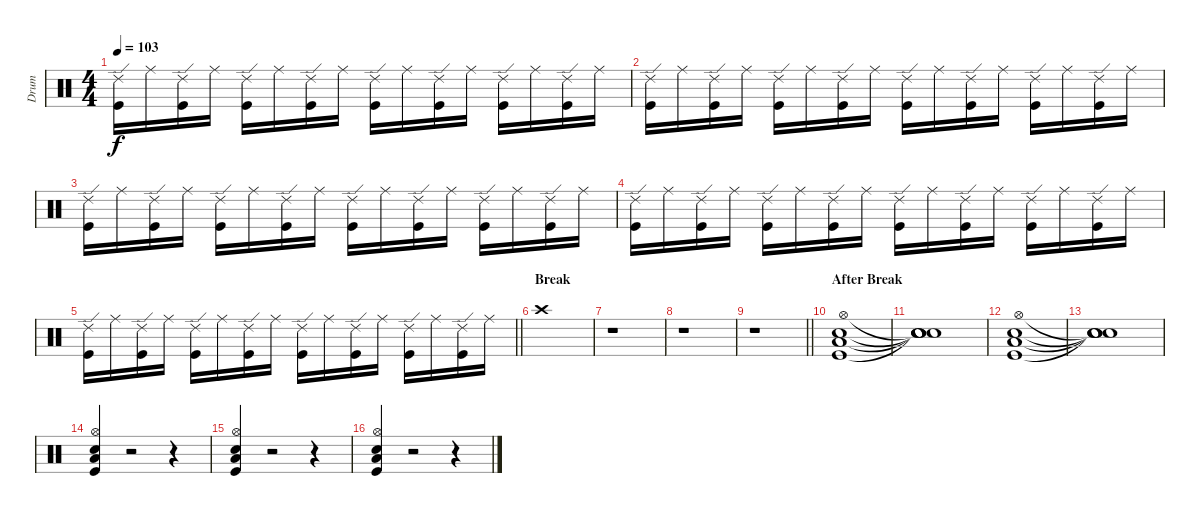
\track ("Drum" "Drum") {instrument percussion}
\staff {score}
\articulation defaults
\ts (4 4)
\tempo 103
\clef neutral
\ks c
("Ride (edge) 2" "Kick (hit)").16{dy f} "Ride (middle)".16 ("Ride (edge) 2" "Kick (hit)").16 "Ride (middle)".16 ("Ride (edge) 2" "Kick (hit)").16 "Ride (middle)".16 ("Ride (edge) 2" "Kick (hit)").16 "Ride (middle)".16 ("Ride (edge) 2" "Kick (hit)").16 "Ride (middle)".16 ("Ride (edge) 2" "Kick (hit)").16 "Ride (middle)".16 ("Ride (edge) 2" "Kick (hit)").16 "Ride (middle)".16 ("Ride (edge) 2" "Kick (hit)").16 "Ride (middle)".16 |
("Ride (edge) 2" "Kick (hit)").16 "Ride (middle)".16 ("Ride (edge) 2" "Kick (hit)").16 "Ride (middle)".16 ("Ride (edge) 2" "Kick (hit)").16 "Ride (middle)".16 ("Ride (edge) 2" "Kick (hit)").16 "Ride (middle)".16 ("Ride (edge) 2" "Kick (hit)").16 "Ride (middle)".16 ("Ride (edge) 2" "Kick (hit)").16 "Ride (middle)".16 ("Ride (edge) 2" "Kick (hit)").16 "Ride (middle)".16 ("Ride (edge) 2" "Kick (hit)").16 "Ride (middle)".16 |
("Ride (edge) 2" "Kick (hit)").16 "Ride (middle)".16 ("Ride (edge) 2" "Kick (hit)").16 "Ride (middle)".16 ("Ride (edge) 2" "Kick (hit)").16 "Ride (middle)".16 ("Ride (edge) 2" "Kick (hit)").16 "Ride (middle)".16 ("Ride (edge) 2" "Kick (hit)").16 "Ride (middle)".16 ("Ride (edge) 2" "Kick (hit)").16 "Ride (middle)".16 ("Ride (edge) 2" "Kick (hit)").16 "Ride (middle)".16 ("Ride (edge) 2" "Kick (hit)").16 "Ride (middle)".16 |
("Ride (edge) 2" "Kick (hit)").16 "Ride (middle)".16 ("Ride (edge) 2" "Kick (hit)").16 "Ride (middle)".16 ("Ride (edge) 2" "Kick (hit)").16 "Ride (middle)".16 ("Ride (edge) 2" "Kick (hit)").16 "Ride (middle)".16 ("Ride (edge) 2" "Kick (hit)").16 "Ride (middle)".16 ("Ride (edge) 2" "Kick (hit)").16 "Ride (middle)".16 ("Ride (edge) 2" "Kick (hit)").16 "Ride (middle)".16 ("Ride (edge) 2" "Kick (hit)").16 "Ride (middle)".16 |
\barLineRight lightlight
("Ride (edge) 2" "Kick (hit)").16 "Ride (middle)".16 ("Ride (edge) 2" "Kick (hit)").16 "Ride (middle)".16 ("Ride (edge) 2" "Kick (hit)").16 "Ride (middle)".16 ("Ride (edge) 2" "Kick (hit)").16 "Ride (middle)".16 ("Ride (edge) 2" "Kick (hit)").16 "Ride (middle)".16 ("Ride (edge) 2" "Kick (hit)").16 "Ride (middle)".16 ("Ride (edge) 2" "Kick (hit)").16 "Ride (middle)".16 ("Ride (edge) 2" "Kick (hit)").16 "Ride (middle)".16 |
\section ("" "Break")
"Crash high (hit)".1 |
r.1 |
r.1 |
\barLineRight lightlight
r.1 |
\section ("" "After Break")
("Hi-Hat (open)" "Snare (hit) 2" "Low Tom (hit)" "Kick (hit)").1 |
("Snare (hit)"{t} "Snare (hit)"{t} "Snare (hit)"{t} "Snare (hit)"{t}).1 |
("Hi-Hat (open)" "Snare (hit) 2" "Low Tom (hit)" "Kick (hit)").1 |
("Snare (hit)"{t} "Snare (hit)"{t} "Snare (hit)"{t} "Snare (hit)"{t}).1 |
("Hi-Hat (open)" "Snare (hit) 2" "Low Tom (hit)" "Kick (hit)").4 r.2 r.4 |
("Hi-Hat (open)" "Snare (hit) 2" "Low Tom (hit)" "Kick (hit)").4 r.2 r.4 |
("Hi-Hat (open)" "Snare (hit) 2" "Low Tom (hit)" "Kick (hit)").4 r.2 r.4
